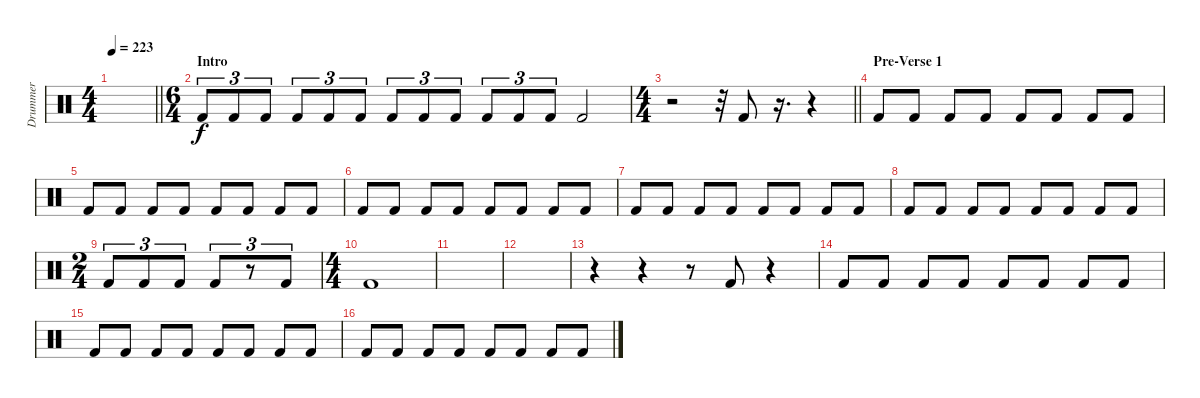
\track ("Drummer" "Drummer") {instrument percussion}
\staff {score}
\articulation defaults
\ts (4 4)
\tempo 223
\clef neutral
\barLineRight lightlight
\ks c
|
\ts (6 4)
\section ("" "Intro")
"Kick (hit) 2".8{tu (3 2)} "Kick (hit) 2".8{tu (3 2)} "Kick (hit) 2".8{tu (3 2)} "Kick (hit) 2".8{tu (3 2)} "Kick (hit) 2".8{tu (3 2)} "Kick (hit) 2".8{tu (3 2)} "Kick (hit) 2".8{tu (3 2)} "Kick (hit) 2".8{tu (3 2)} "Kick (hit) 2".8{tu (3 2)} "Kick (hit) 2".8{tu (3 2)} "Kick (hit) 2".8{tu (3 2)} "Kick (hit) 2".8{tu (3 2)} "Kick (hit) 2".2 |
\ts (4 4)
\barLineRight lightlight
r.2 r.32 "Kick (hit) 2".8 r.16{d} r.4 |
\section ("" "Pre-Verse 1")
"Kick (hit) 2".8 "Kick (hit) 2".8 "Kick (hit) 2".8 "Kick (hit) 2".8 "Kick (hit) 2".8 "Kick (hit) 2".8 "Kick (hit) 2".8 "Kick (hit) 2".8 |
"Kick (hit) 2".8 "Kick (hit) 2".8 "Kick (hit) 2".8 "Kick (hit) 2".8 "Kick (hit) 2".8 "Kick (hit) 2".8 "Kick (hit) 2".8 "Kick (hit) 2".8 |
"Kick (hit) 2".8 "Kick (hit) 2".8 "Kick (hit) 2".8 "Kick (hit) 2".8 "Kick (hit) 2".8 "Kick (hit) 2".8 "Kick (hit) 2".8 "Kick (hit) 2".8 |
"Kick (hit) 2".8 "Kick (hit) 2".8 "Kick (hit) 2".8 "Kick (hit) 2".8 "Kick (hit) 2".8 "Kick (hit) 2".8 "Kick (hit) 2".8 "Kick (hit) 2".8 |
"Kick (hit) 2".8 "Kick (hit) 2".8 "Kick (hit) 2".8 "Kick (hit) 2".8 "Kick (hit) 2".8 "Kick (hit) 2".8 "Kick (hit) 2".8 "Kick (hit) 2".8 |
\ts (2 4)
"Kick (hit) 2".8{tu (3 2)} "Kick (hit) 2".8{tu (3 2)} "Kick (hit) 2".8{tu (3 2)} "Kick (hit) 2".8{tu (3 2)} r.8{tu (3 2)} "Kick (hit) 2".8{tu (3 2)} |
\ts (4 4)
"Kick (hit) 2".1 |
|
|
r.4 r.4 r.8 "Kick (hit) 2".8 r.4 |
"Kick (hit) 2".8 "Kick (hit) 2".8 "Kick (hit) 2".8 "Kick (hit) 2".8 "Kick (hit) 2".8 "Kick (hit) 2".8 "Kick (hit) 2".8 "Kick (hit) 2".8 |
"Kick (hit) 2".8 "Kick (hit) 2".8 "Kick (hit) 2".8 "Kick (hit) 2".8 "Kick (hit) 2".8 "Kick (hit) 2".8 "Kick (hit) 2".8 "Kick (hit) 2".8 |
"Kick (hit) 2".8 "Kick (hit) 2".8 "Kick (hit) 2".8 "Kick (hit) 2".8 "Kick (hit) 2".8 "Kick (hit) 2".8 "Kick (hit) 2".8 "Kick (hit) 2".8
